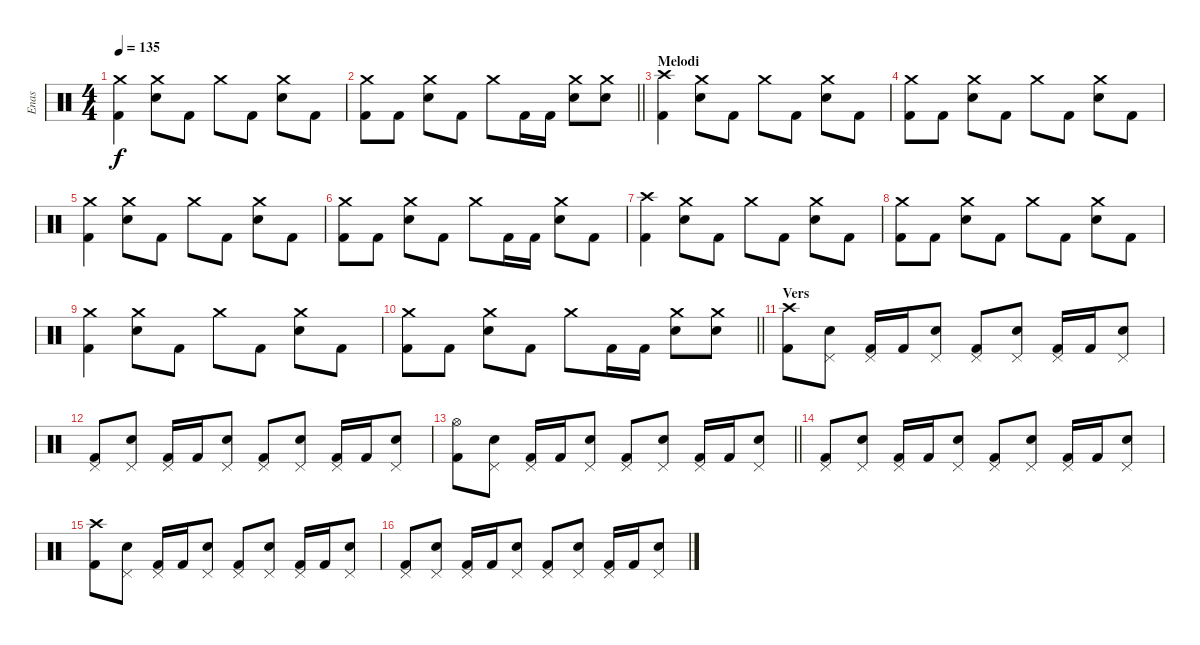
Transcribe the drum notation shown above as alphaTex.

\track ("Enas" "Enas") {instrument percussion}
\staff {score}
\articulation defaults
\ts (4 4)
\tempo 135
\clef neutral
\ks c
("Kick (hit) 2" "Crash medium (hit)").4{dy f} ("Snare (hit) 2" "Crash medium (hit)").8 "Kick (hit) 2".8 "Crash medium (hit)".8 "Kick (hit) 2".8 ("Snare (hit) 2" "Crash medium (hit)").8 "Kick (hit) 2".8 |
\barLineRight lightlight
("Kick (hit) 2" "Crash medium (hit)").8 "Kick (hit) 2".8 ("Snare (hit) 2" "Crash medium (hit)").8 "Kick (hit) 2".8 "Crash medium (hit)".8 "Kick (hit) 2".16 "Kick (hit) 2".16 ("Snare (hit) 2" "Crash medium (hit)").8 ("Snare (hit) 2" "Crash medium (hit)").8 |
\section ("" "Melodi")
("Kick (hit) 2" "Crash high (hit)").4 ("Snare (hit) 2" "Crash medium (hit)").8 "Kick (hit) 2".8 "Crash medium (hit)".8 "Kick (hit) 2".8 ("Snare (hit) 2" "Crash medium (hit)").8 "Kick (hit) 2".8 |
("Kick (hit) 2" "Crash medium (hit)").8 "Kick (hit) 2".8 ("Snare (hit) 2" "Crash medium (hit)").8 "Kick (hit) 2".8 "Crash medium (hit)".8 "Kick (hit) 2".8 ("Snare (hit) 2" "Crash medium (hit)").8 "Kick (hit) 2".8 |
("Kick (hit) 2" "Crash medium (hit)").4 ("Snare (hit) 2" "Crash medium (hit)").8 "Kick (hit) 2".8 "Crash medium (hit)".8 "Kick (hit) 2".8 ("Snare (hit) 2" "Crash medium (hit)").8 "Kick (hit) 2".8 |
("Kick (hit) 2" "Crash medium (hit)").8 "Kick (hit) 2".8 ("Snare (hit) 2" "Crash medium (hit)").8 "Kick (hit) 2".8 "Crash medium (hit)".8 "Kick (hit) 2".16 "Kick (hit) 2".16 ("Snare (hit) 2" "Crash medium (hit)").8 "Kick (hit) 2".8 |
("Kick (hit) 2" "Crash high (hit)").4 ("Snare (hit) 2" "Crash medium (hit)").8 "Kick (hit) 2".8 "Crash medium (hit)".8 "Kick (hit) 2".8 ("Snare (hit) 2" "Crash medium (hit)").8 "Kick (hit) 2".8 |
("Kick (hit) 2" "Crash medium (hit)").8 "Kick (hit) 2".8 ("Snare (hit) 2" "Crash medium (hit)").8 "Kick (hit) 2".8 "Crash medium (hit)".8 "Kick (hit) 2".8 ("Snare (hit) 2" "Crash medium (hit)").8 "Kick (hit) 2".8 |
("Kick (hit) 2" "Crash medium (hit)").4 ("Snare (hit) 2" "Crash medium (hit)").8 "Kick (hit) 2".8 "Crash medium (hit)".8 "Kick (hit) 2".8 ("Snare (hit) 2" "Crash medium (hit)").8 "Kick (hit) 2".8 |
\barLineRight lightlight
("Kick (hit) 2" "Crash medium (hit)").8 "Kick (hit) 2".8 ("Snare (hit) 2" "Crash medium (hit)").8 "Kick (hit) 2".8 "Crash medium (hit)".8 "Kick (hit) 2".16 "Kick (hit) 2".16 ("Snare (hit) 2" "Crash medium (hit)").8 ("Snare (hit) 2" "Crash medium (hit)").8 |
\section ("" "Vers")
("Kick (hit) 2" "Crash high (hit)").8 ("Snare (hit) 2" "Pedal Hi-Hat (hit)").8 ("Kick (hit) 2" "Pedal Hi-Hat (hit)").16 "Kick (hit) 2".16 ("Snare (hit) 2" "Pedal Hi-Hat (hit)").8 ("Kick (hit) 2" "Pedal Hi-Hat (hit)").8 ("Snare (hit) 2" "Pedal Hi-Hat (hit)").8 ("Kick (hit) 2" "Pedal Hi-Hat (hit)").16 "Kick (hit) 2".16 ("Snare (hit) 2" "Pedal Hi-Hat (hit)").8 |
("Kick (hit) 2" "Pedal Hi-Hat (hit)").8 ("Snare (hit) 2" "Pedal Hi-Hat (hit)").8 ("Kick (hit) 2" "Pedal Hi-Hat (hit)").16 "Kick (hit) 2".16 ("Snare (hit) 2" "Pedal Hi-Hat (hit)").8 ("Kick (hit) 2" "Pedal Hi-Hat (hit)").8 ("Snare (hit) 2" "Pedal Hi-Hat (hit)").8 ("Kick (hit) 2" "Pedal Hi-Hat (hit)").16 "Kick (hit) 2".16 ("Snare (hit) 2" "Pedal Hi-Hat (hit)").8 |
\barLineRight lightlight
("Kick (hit) 2" "Hi-Hat (open)").8 ("Snare (hit) 2" "Pedal Hi-Hat (hit)").8 ("Kick (hit) 2" "Pedal Hi-Hat (hit)").16 "Kick (hit) 2".16 ("Snare (hit) 2" "Pedal Hi-Hat (hit)").8 ("Kick (hit) 2" "Pedal Hi-Hat (hit)").8 ("Snare (hit) 2" "Pedal Hi-Hat (hit)").8 ("Kick (hit) 2" "Pedal Hi-Hat (hit)").16 "Kick (hit) 2".16 ("Snare (hit) 2" "Pedal Hi-Hat (hit)").8 |
\section ("" "")
("Kick (hit) 2" "Pedal Hi-Hat (hit)").8 ("Snare (hit) 2" "Pedal Hi-Hat (hit)").8 ("Kick (hit) 2" "Pedal Hi-Hat (hit)").16 "Kick (hit) 2".16 ("Snare (hit) 2" "Pedal Hi-Hat (hit)").8 ("Kick (hit) 2" "Pedal Hi-Hat (hit)").8 ("Snare (hit) 2" "Pedal Hi-Hat (hit)").8 ("Kick (hit) 2" "Pedal Hi-Hat (hit)").16 "Kick (hit) 2".16 ("Snare (hit) 2" "Pedal Hi-Hat (hit)").8 |
("Kick (hit) 2" "Crash high (hit)").8 ("Snare (hit) 2" "Pedal Hi-Hat (hit)").8 ("Kick (hit) 2" "Pedal Hi-Hat (hit)").16 "Kick (hit) 2".16 ("Snare (hit) 2" "Pedal Hi-Hat (hit)").8 ("Kick (hit) 2" "Pedal Hi-Hat (hit)").8 ("Snare (hit) 2" "Pedal Hi-Hat (hit)").8 ("Kick (hit) 2" "Pedal Hi-Hat (hit)").16 "Kick (hit) 2".16 ("Snare (hit) 2" "Pedal Hi-Hat (hit)").8 |
("Kick (hit) 2" "Pedal Hi-Hat (hit)").8 ("Snare (hit) 2" "Pedal Hi-Hat (hit)").8 ("Kick (hit) 2" "Pedal Hi-Hat (hit)").16 "Kick (hit) 2".16 ("Snare (hit) 2" "Pedal Hi-Hat (hit)").8 ("Kick (hit) 2" "Pedal Hi-Hat (hit)").8 ("Snare (hit) 2" "Pedal Hi-Hat (hit)").8 ("Kick (hit) 2" "Pedal Hi-Hat (hit)").16 "Kick (hit) 2".16 ("Snare (hit) 2" "Pedal Hi-Hat (hit)").8
